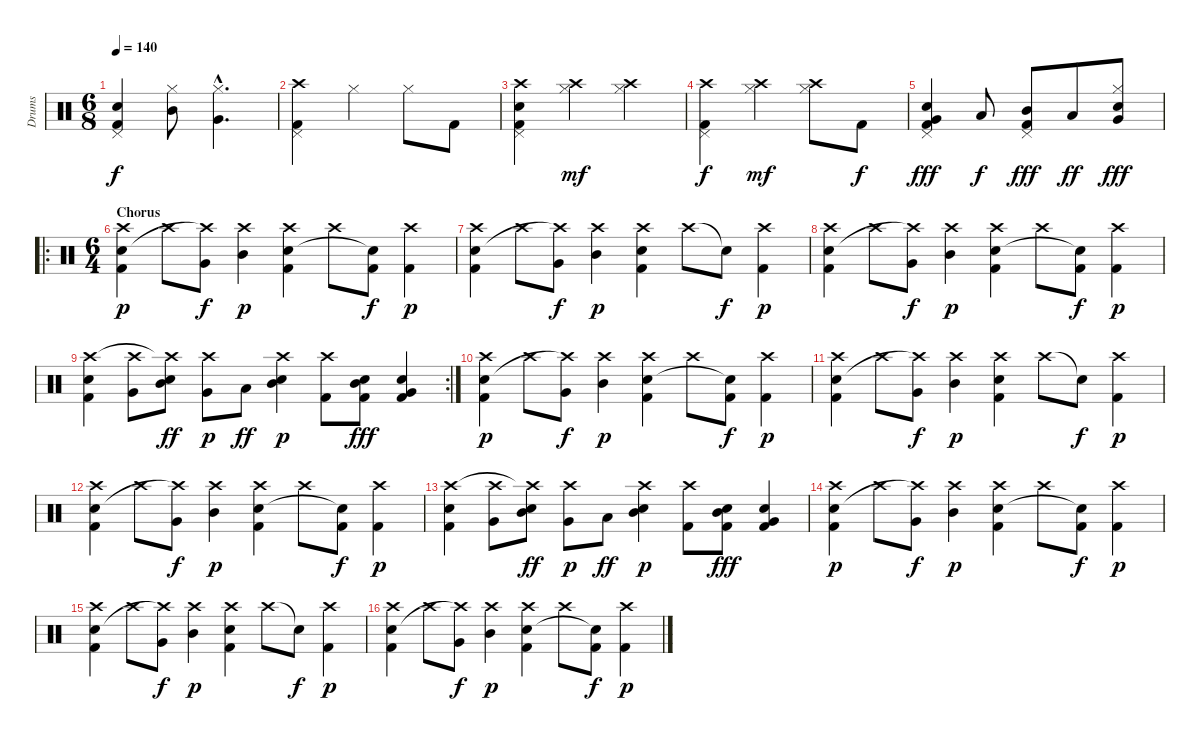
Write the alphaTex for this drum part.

\track ("Drums" "Drums") {instrument percussion}
\staff {score}
\articulation defaults
\ts (6 8)
\tempo 140
\clef neutral
\ks c
("Pedal Hi-Hat (hit)" "Electric Snare (hit)" "Kick (hit) 2").4{dy f} ("Mid Tom (hit)" "Hi-Hat (closed)").8 ("Very Low Tom (hit)"{hac} "Hi-Hat (closed)"{hac}).4{d} |
("Crash high (hit)" "Kick (hit) 2" "Pedal Hi-Hat (hit)").4 "Hi-Hat (closed)".4 "Hi-Hat (closed)".8 "Kick (hit) 2".8 |
("Crash high (hit)" "Electric Snare (hit)" "Kick (hit) 2" "Pedal Hi-Hat (hit)").4 ("Crash high (hit)" "Hi-Hat (closed)").4{dy mf} ("Crash high (hit)" "Hi-Hat (closed)").4 |
("Crash high (hit)" "Kick (hit) 2" "Pedal Hi-Hat (hit)").4{dy f} ("Crash high (hit)" "Hi-Hat (closed)").4{dy mf} ("Crash high (hit)" "Hi-Hat (closed)").8 "Kick (hit) 2".8{dy f} |
("Pedal Hi-Hat (hit)" "Kick (hit) 2" "Electric Snare (hit)" "Very Low Tom (hit)").4{dy fff} "Low Tom (hit)".8{dy f} ("Pedal Hi-Hat (hit)" "Kick (hit) 2" "Mid Tom (hit)").8{dy fff} "Low Floor Tom (hit)".8{dy ff} ("Hi-Hat (closed)" "Electric Snare (hit)" "Very Low Tom (hit)").8{dy fff} |
\ro
\ts (6 4)
\section ("" "Chorus")
("Kick (hit) 2" "Electric Snare (hit)" "Crash high (hit)").4{dy p} "Crash high (hit)".8 ("Very Low Tom (hit)" "Crash high (hit)"{t}).8{dy f} ("Mid Tom (hit)" "Crash high (hit)").4{dy p} ("Kick (hit) 2" "Electric Snare (hit)" "Crash high (hit)").4 "Crash high (hit)".8 ("Kick (hit) 2" "Snare (hit)"{t}).8{dy f} ("Kick (hit) 2" "Crash high (hit)").4{dy p} |
("Kick (hit) 2" "Electric Snare (hit)" "Crash high (hit)").4 "Crash high (hit)".8 ("Very Low Tom (hit)" "Crash high (hit)"{t}).8{dy f} ("Mid Tom (hit)" "Crash high (hit)").4{dy p} ("Kick (hit) 2" "Electric Snare (hit)" "Crash high (hit)").4 "Crash high (hit)".8 "Snare (hit)"{t}.8{dy f} ("Kick (hit) 2" "Crash high (hit)").4{dy p} |
("Kick (hit) 2" "Electric Snare (hit)" "Crash high (hit)").4 "Crash high (hit)".8 ("Very Low Tom (hit)" "Crash high (hit)"{t}).8{dy f} ("Mid Tom (hit)" "Crash high (hit)").4{dy p} ("Kick (hit) 2" "Electric Snare (hit)" "Crash high (hit)").4 "Crash high (hit)".8 ("Kick (hit) 2" "Snare (hit)"{t}).8{dy f} ("Kick (hit) 2" "Crash high (hit)").4{dy p} |
\rc 2
("Kick (hit) 2" "Electric Snare (hit)" "Crash high (hit)").4 ("Very Low Tom (hit)" "Crash high (hit)").8 ("Mid Tom (hit)" "Electric Snare (hit)" "Crash high (hit)"{t}).8{dy ff} ("Very Low Tom (hit)" "Crash high (hit)").8{dy p} "Low Floor Tom (hit)".8{dy ff} ("Mid Tom (hit)" "Electric Snare (hit)" "Crash high (hit)").4{dy p} ("Kick (hit) 2" "Crash high (hit)").8 ("Kick (hit) 2" "Mid Tom (hit)" "Electric Snare (hit)").8{dy fff} ("Kick (hit) 2" "Very Low Tom (hit)" "Electric Snare (hit)").4 |
("Kick (hit) 2" "Electric Snare (hit)" "Crash high (hit)").4{dy p} "Crash high (hit)".8 ("Very Low Tom (hit)" "Crash high (hit)"{t}).8{dy f} ("Mid Tom (hit)" "Crash high (hit)").4{dy p} ("Kick (hit) 2" "Electric Snare (hit)" "Crash high (hit)").4 "Crash high (hit)".8 ("Kick (hit) 2" "Snare (hit)"{t}).8{dy f} ("Kick (hit) 2" "Crash high (hit)").4{dy p} |
("Kick (hit) 2" "Electric Snare (hit)" "Crash high (hit)").4 "Crash high (hit)".8 ("Very Low Tom (hit)" "Crash high (hit)"{t}).8{dy f} ("Mid Tom (hit)" "Crash high (hit)").4{dy p} ("Kick (hit) 2" "Electric Snare (hit)" "Crash high (hit)").4 "Crash high (hit)".8 "Snare (hit)"{t}.8{dy f} ("Kick (hit) 2" "Crash high (hit)").4{dy p} |
("Kick (hit) 2" "Electric Snare (hit)" "Crash high (hit)").4 "Crash high (hit)".8 ("Very Low Tom (hit)" "Crash high (hit)"{t}).8{dy f} ("Mid Tom (hit)" "Crash high (hit)").4{dy p} ("Kick (hit) 2" "Electric Snare (hit)" "Crash high (hit)").4 "Crash high (hit)".8 ("Kick (hit) 2" "Snare (hit)"{t}).8{dy f} ("Kick (hit) 2" "Crash high (hit)").4{dy p} |
("Kick (hit) 2" "Electric Snare (hit)" "Crash high (hit)").4 ("Very Low Tom (hit)" "Crash high (hit)").8 ("Mid Tom (hit)" "Electric Snare (hit)" "Crash high (hit)"{t}).8{dy ff} ("Very Low Tom (hit)" "Crash high (hit)").8{dy p} "Low Floor Tom (hit)".8{dy ff} ("Mid Tom (hit)" "Electric Snare (hit)" "Crash high (hit)").4{dy p} ("Kick (hit) 2" "Crash high (hit)").8 ("Kick (hit) 2" "Mid Tom (hit)" "Electric Snare (hit)").8{dy fff} ("Kick (hit) 2" "Very Low Tom (hit)" "Electric Snare (hit)").4 |
("Kick (hit) 2" "Electric Snare (hit)" "Crash high (hit)").4{dy p} "Crash high (hit)".8 ("Very Low Tom (hit)" "Crash high (hit)"{t}).8{dy f} ("Mid Tom (hit)" "Crash high (hit)").4{dy p} ("Kick (hit) 2" "Electric Snare (hit)" "Crash high (hit)").4 "Crash high (hit)".8 ("Kick (hit) 2" "Snare (hit)"{t}).8{dy f} ("Kick (hit) 2" "Crash high (hit)").4{dy p} |
("Kick (hit) 2" "Electric Snare (hit)" "Crash high (hit)").4 "Crash high (hit)".8 ("Very Low Tom (hit)" "Crash high (hit)"{t}).8{dy f} ("Mid Tom (hit)" "Crash high (hit)").4{dy p} ("Kick (hit) 2" "Electric Snare (hit)" "Crash high (hit)").4 "Crash high (hit)".8 "Snare (hit)"{t}.8{dy f} ("Kick (hit) 2" "Crash high (hit)").4{dy p} |
("Kick (hit) 2" "Electric Snare (hit)" "Crash high (hit)").4 "Crash high (hit)".8 ("Very Low Tom (hit)" "Crash high (hit)"{t}).8{dy f} ("Mid Tom (hit)" "Crash high (hit)").4{dy p} ("Kick (hit) 2" "Electric Snare (hit)" "Crash high (hit)").4 "Crash high (hit)".8 ("Kick (hit) 2" "Snare (hit)"{t}).8{dy f} ("Kick (hit) 2" "Crash high (hit)").4{dy p}
